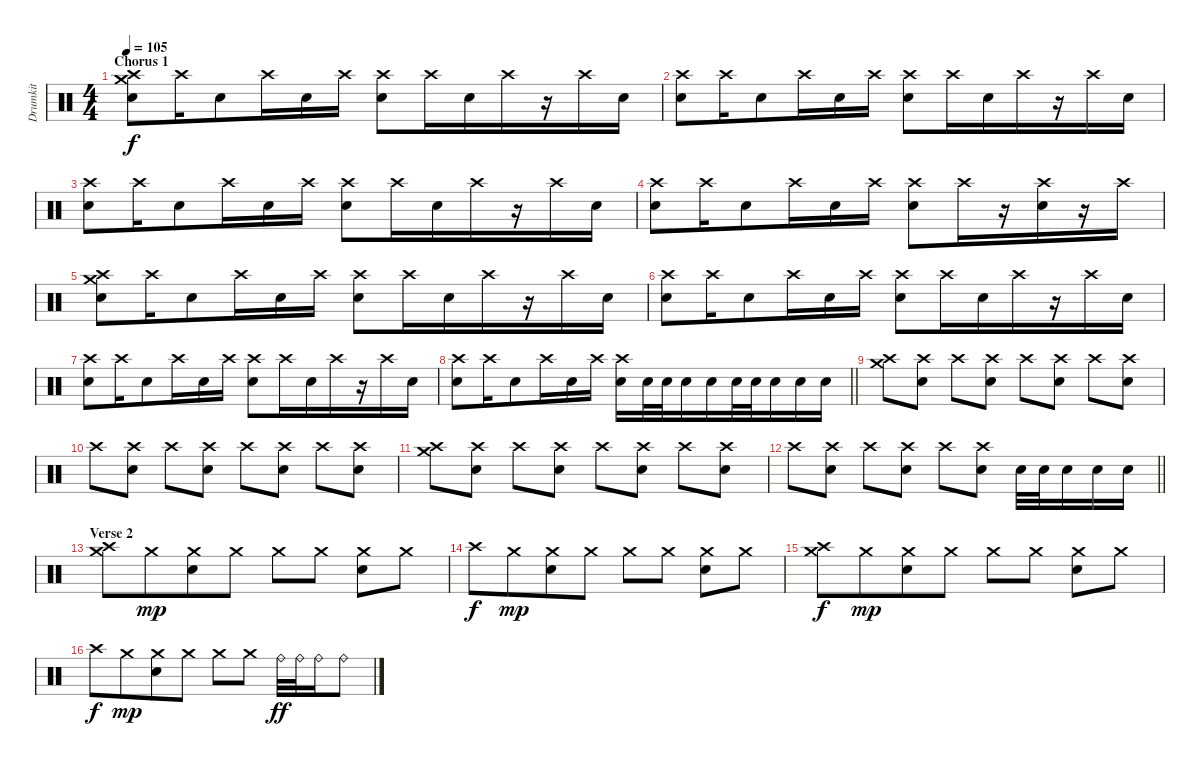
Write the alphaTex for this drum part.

\track ("Drumkit" "Drumkit") {instrument percussion}
\staff {score}
\articulation defaults
\ts (4 4)
\section ("" "Chorus 1")
\tempo 105
\clef neutral
\ks c
("Crash medium (hit)" "Crash high (hit)" "Electric Snare (hit)").8{dy f beam merge} "Crash high (hit)".16 "Electric Snare (hit)".8{beam merge} "Crash high (hit)".16 "Electric Snare (hit)".16{beam merge} "Crash high (hit)".16 ("Crash high (hit)" "Electric Snare (hit)").8 "Crash high (hit)".16{beam merge} "Electric Snare (hit)".16{beam merge} "Crash high (hit)".16 r.16{beam merge} "Crash high (hit)".16 "Electric Snare (hit)".16 |
("Crash high (hit)" "Electric Snare (hit)").8{beam merge} "Crash high (hit)".16 "Electric Snare (hit)".8{beam merge} "Crash high (hit)".16 "Electric Snare (hit)".16{beam merge} "Crash high (hit)".16 ("Crash high (hit)" "Electric Snare (hit)").8 "Crash high (hit)".16{beam merge} "Electric Snare (hit)".16{beam merge} "Crash high (hit)".16 r.16{beam merge} "Crash high (hit)".16 "Electric Snare (hit)".16 |
("Crash high (hit)" "Electric Snare (hit)").8{beam merge} "Crash high (hit)".16 "Electric Snare (hit)".8{beam merge} "Crash high (hit)".16 "Electric Snare (hit)".16{beam merge} "Crash high (hit)".16 ("Crash high (hit)" "Electric Snare (hit)").8 "Crash high (hit)".16{beam merge} "Electric Snare (hit)".16{beam merge} "Crash high (hit)".16 r.16{beam merge} "Crash high (hit)".16 "Electric Snare (hit)".16 |
("Crash high (hit)" "Electric Snare (hit)").8{beam merge} "Crash high (hit)".16 "Electric Snare (hit)".8{beam merge} "Crash high (hit)".16 "Electric Snare (hit)".16{beam merge} "Crash high (hit)".16 ("Crash high (hit)" "Electric Snare (hit)").8 "Crash high (hit)".16{beam merge} r.16{beam merge} ("Crash high (hit)" "Electric Snare (hit)").16 r.16{beam merge} "Crash high (hit)".16 |
("Crash medium (hit)" "Crash high (hit)" "Electric Snare (hit)").8{beam merge} "Crash high (hit)".16 "Electric Snare (hit)".8{beam merge} "Crash high (hit)".16 "Electric Snare (hit)".16{beam merge} "Crash high (hit)".16 ("Crash high (hit)" "Electric Snare (hit)").8 "Crash high (hit)".16{beam merge} "Electric Snare (hit)".16{beam merge} "Crash high (hit)".16 r.16{beam merge} "Crash high (hit)".16 "Electric Snare (hit)".16 |
("Crash high (hit)" "Electric Snare (hit)").8{beam merge} "Crash high (hit)".16 "Electric Snare (hit)".8{beam merge} "Crash high (hit)".16 "Electric Snare (hit)".16{beam merge} "Crash high (hit)".16 ("Crash high (hit)" "Electric Snare (hit)").8 "Crash high (hit)".16{beam merge} "Electric Snare (hit)".16{beam merge} "Crash high (hit)".16 r.16{beam merge} "Crash high (hit)".16 "Electric Snare (hit)".16 |
("Crash high (hit)" "Electric Snare (hit)").8{beam merge} "Crash high (hit)".16 "Electric Snare (hit)".8{beam merge} "Crash high (hit)".16 "Electric Snare (hit)".16{beam merge} "Crash high (hit)".16 ("Crash high (hit)" "Electric Snare (hit)").8 "Crash high (hit)".16{beam merge} "Electric Snare (hit)".16{beam merge} "Crash high (hit)".16 r.16{beam merge} "Crash high (hit)".16 "Electric Snare (hit)".16 |
\barLineRight lightlight
("Crash high (hit)" "Electric Snare (hit)").8{beam merge} "Crash high (hit)".16 "Electric Snare (hit)".8{beam merge} "Crash high (hit)".16 "Electric Snare (hit)".16{beam merge} "Crash high (hit)".16 ("Crash high (hit)" "Electric Snare (hit)").16 "Electric Snare (hit)".32{beam merge} "Electric Snare (hit)".32{beam merge} "Electric Snare (hit)".16 "Electric Snare (hit)".16{beam merge} "Electric Snare (hit)".32 "Electric Snare (hit)".32{beam merge} "Electric Snare (hit)".16{beam merge} "Electric Snare (hit)".16{beam merge} "Electric Snare (hit)".16 |
("Crash medium (hit)" "Crash high (hit)").8 ("Crash high (hit)" "Electric Snare (hit)").8 "Crash high (hit)".8 ("Crash high (hit)" "Electric Snare (hit)").8 "Crash high (hit)".8 ("Crash high (hit)" "Electric Snare (hit)").8 "Crash high (hit)".8 ("Crash high (hit)" "Electric Snare (hit)").8 |
"Crash high (hit)".8 ("Crash high (hit)" "Electric Snare (hit)").8 "Crash high (hit)".8 ("Crash high (hit)" "Electric Snare (hit)").8 "Crash high (hit)".8 ("Crash high (hit)" "Electric Snare (hit)").8 "Crash high (hit)".8 ("Crash high (hit)" "Electric Snare (hit)").8 |
("Crash medium (hit)" "Crash high (hit)").8 ("Crash high (hit)" "Electric Snare (hit)").8 "Crash high (hit)".8 ("Crash high (hit)" "Electric Snare (hit)").8 "Crash high (hit)".8 ("Crash high (hit)" "Electric Snare (hit)").8 "Crash high (hit)".8 ("Crash high (hit)" "Electric Snare (hit)").8 |
\barLineRight lightlight "Crash high (hit)".8
("Crash high (hit)" "Electric Snare (hit)").8 "Crash high (hit)".8 ("Crash high (hit)" "Electric Snare (hit)").8 "Crash high (hit)".8 ("Crash high (hit)" "Electric Snare (hit)").8 "Electric Snare (hit)".32 "Electric Snare (hit)".32{beam merge} "Electric Snare (hit)".16{beam merge} "Electric Snare (hit)".16 "Electric Snare (hit)".16 |
\section ("" "Verse 2")
("Crash medium (hit)" "Crash high (hit)").8 "Crash medium (hit)".8{dy mp beam merge} ("Crash medium (hit)" "Electric Snare (hit)").8 "Crash medium (hit)".8 "Crash medium (hit)".8 "Crash medium (hit)".8 ("Crash medium (hit)" "Electric Snare (hit)").8 "Crash medium (hit)".8 |
"Crash high (hit)".8{dy f} "Crash medium (hit)".8{dy mp beam merge} ("Crash medium (hit)" "Electric Snare (hit)").8 "Crash medium (hit)".8 "Crash medium (hit)".8 "Crash medium (hit)".8 ("Crash medium (hit)" "Electric Snare (hit)").8 "Crash medium (hit)".8 |
("Crash medium (hit)" "Crash high (hit)").8{dy f} "Crash medium (hit)".8{dy mp beam merge} ("Crash medium (hit)" "Electric Snare (hit)").8 "Crash medium (hit)".8 "Crash medium (hit)".8 "Crash medium (hit)".8 ("Crash medium (hit)" "Electric Snare (hit)").8 "Crash medium (hit)".8 |
"Crash high (hit)".8{dy f} "Crash medium (hit)".8{dy mp beam merge} ("Crash medium (hit)" "Electric Snare (hit)").8 "Crash medium (hit)".8 "Crash medium (hit)".8 "Crash medium (hit)".8 "Ride (bell)".32{dy ff} "Ride (bell)".32 "Ride (bell)".16{beam merge} "Ride (bell)".8
